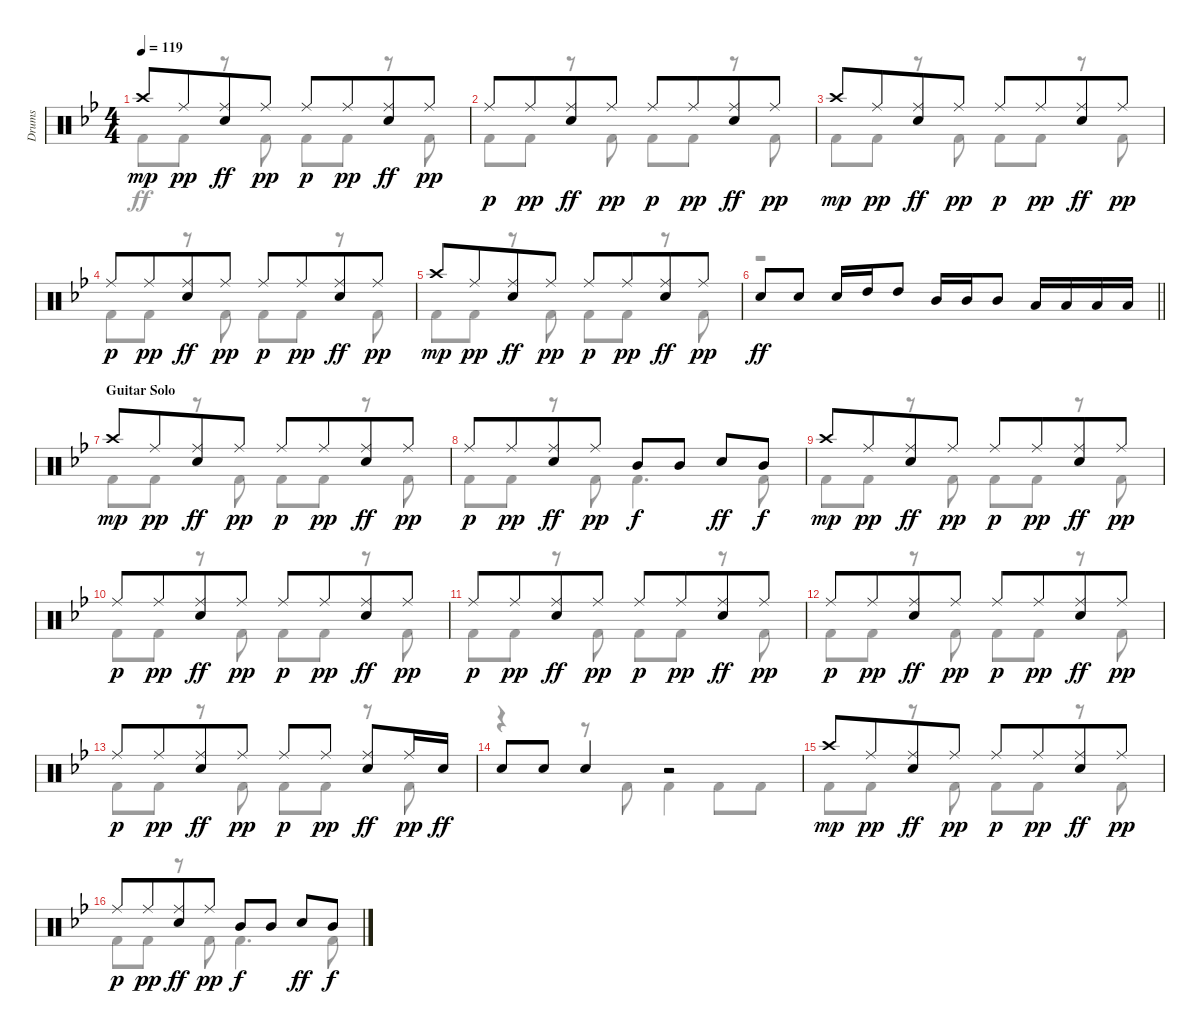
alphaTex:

\track ("Drums" "Drums") {instrument percussion}
\staff {score}
\articulation defaults
\voice
\ts (4 4)
\tempo 119
\clef neutral
\ks bb "Crash high (hit)".8{dy mp} "Ride (middle)".8{dy pp beam merge}
("Ride (middle)" "Electric Snare (hit)").8{dy ff} "Ride (middle)".8{dy pp} "Ride (middle)".8{dy p} "Ride (middle)".8{dy pp beam merge} ("Ride (middle)" "Electric Snare (hit)").8{dy ff} "Ride (middle)".8{dy pp} |
"Ride (middle)".8{dy p} "Ride (middle)".8{dy pp beam merge} ("Ride (middle)" "Electric Snare (hit)").8{dy ff} "Ride (middle)".8{dy pp} "Ride (middle)".8{dy p} "Ride (middle)".8{dy pp beam merge} ("Ride (middle)" "Electric Snare (hit)").8{dy ff} "Ride (middle)".8{dy pp} |
"Crash high (hit)".8{dy mp} "Ride (middle)".8{dy pp beam merge} ("Ride (middle)" "Electric Snare (hit)").8{dy ff} "Ride (middle)".8{dy pp} "Ride (middle)".8{dy p} "Ride (middle)".8{dy pp beam merge} ("Ride (middle)" "Electric Snare (hit)").8{dy ff} "Ride (middle)".8{dy pp} |
"Ride (middle)".8{dy p} "Ride (middle)".8{dy pp beam merge} ("Ride (middle)" "Electric Snare (hit)").8{dy ff} "Ride (middle)".8{dy pp} "Ride (middle)".8{dy p} "Ride (middle)".8{dy pp beam merge} ("Ride (middle)" "Electric Snare (hit)").8{dy ff} "Ride (middle)".8{dy pp} |
"Crash high (hit)".8{dy mp} "Ride (middle)".8{dy pp beam merge} ("Ride (middle)" "Electric Snare (hit)").8{dy ff} "Ride (middle)".8{dy pp} "Ride (middle)".8{dy p} "Ride (middle)".8{dy pp beam merge} ("Ride (middle)" "Electric Snare (hit)").8{dy ff} "Ride (middle)".8{dy pp} |
\barLineRight lightlight "Electric Snare (hit)".8{dy ff} "Electric Snare (hit)".8 "Electric Snare (hit)".16 "High Tom (hit)".16 "High Tom (hit)".8 "Mid Tom (hit)".16 "Mid Tom (hit)".16 "Mid Tom (hit)".8 "Low Tom (hit)".16 "Low Tom (hit)".16 "Low Tom (hit)".16 "Low Tom (hit)".16
|
\section ("" "Guitar Solo")
"Crash high (hit)".8{dy mp} "Ride (middle)".8{dy pp beam merge} ("Ride (middle)" "Electric Snare (hit)").8{dy ff} "Ride (middle)".8{dy pp} "Ride (middle)".8{dy p} "Ride (middle)".8{dy pp beam merge} ("Ride (middle)" "Electric Snare (hit)").8{dy ff} "Ride (middle)".8{dy pp} |
"Ride (middle)".8{dy p} "Ride (middle)".8{dy pp beam merge} ("Ride (middle)" "Electric Snare (hit)").8{dy ff} "Ride (middle)".8{dy pp} "Mid Tom (hit)".8{dy f} "Mid Tom (hit)".8{beam split} "Electric Snare (hit)".8{dy ff} "Mid Tom (hit)".8{dy f} |
"Crash high (hit)".8{dy mp} "Ride (middle)".8{dy pp beam merge} ("Ride (middle)" "Electric Snare (hit)").8{dy ff} "Ride (middle)".8{dy pp} "Ride (middle)".8{dy p} "Ride (middle)".8{dy pp beam merge} ("Ride (middle)" "Electric Snare (hit)").8{dy ff} "Ride (middle)".8{dy pp} |
"Ride (middle)".8{dy p} "Ride (middle)".8{dy pp beam merge} ("Ride (middle)" "Electric Snare (hit)").8{dy ff} "Ride (middle)".8{dy pp} "Ride (middle)".8{dy p} "Ride (middle)".8{dy pp beam merge} ("Ride (middle)" "Electric Snare (hit)").8{dy ff} "Ride (middle)".8{dy pp} |
"Ride (middle)".8{dy p} "Ride (middle)".8{dy pp beam merge} ("Ride (middle)" "Electric Snare (hit)").8{dy ff} "Ride (middle)".8{dy pp} "Ride (middle)".8{dy p} "Ride (middle)".8{dy pp beam merge} ("Ride (middle)" "Electric Snare (hit)").8{dy ff} "Ride (middle)".8{dy pp} |
"Ride (middle)".8{dy p} "Ride (middle)".8{dy pp beam merge} ("Ride (middle)" "Electric Snare (hit)").8{dy ff} "Ride (middle)".8{dy pp} "Ride (middle)".8{dy p} "Ride (middle)".8{dy pp beam merge} ("Ride (middle)" "Electric Snare (hit)").8{dy ff} "Ride (middle)".8{dy pp} |
"Ride (middle)".8{dy p} "Ride (middle)".8{dy pp beam merge} ("Ride (middle)" "Electric Snare (hit)").8{dy ff} "Ride (middle)".8{dy pp} "Ride (middle)".8{dy p} "Ride (middle)".8{dy pp} ("Ride (middle)" "Electric Snare (hit)").8{dy ff} "Ride (middle)".16{dy pp} "Electric Snare (hit)".16{dy ff} |
"Electric Snare (hit)".8 "Electric Snare (hit)".8 "Electric Snare (hit)".4 r.2 |
"Crash high (hit)".8{dy mp} "Ride (middle)".8{dy pp beam merge} ("Ride (middle)" "Electric Snare (hit)").8{dy ff} "Ride (middle)".8{dy pp} "Ride (middle)".8{dy p} "Ride (middle)".8{dy pp beam merge} ("Ride (middle)" "Electric Snare (hit)").8{dy ff} "Ride (middle)".8{dy pp} |
"Ride (middle)".8{dy p} "Ride (middle)".8{dy pp beam merge} ("Ride (middle)" "Electric Snare (hit)").8{dy ff} "Ride (middle)".8{dy pp} "Mid Tom (hit)".8{dy f} "Mid Tom (hit)".8{beam split} "Electric Snare (hit)".8{dy ff} "Mid Tom (hit)".8{dy f}
\voice
\clef neutral
\ottava regular
\simile none
\ks bb "Kick (hit) 2".8{dy ff} "Kick (hit) 2".8
r.8 "Kick (hit) 2".8 "Kick (hit) 2".8 "Kick (hit) 2".8 r.8 "Kick (hit) 2".8 |
"Kick (hit) 2".8 "Kick (hit) 2".8 r.8 "Kick (hit) 2".8 "Kick (hit) 2".8 "Kick (hit) 2".8 r.8 "Kick (hit) 2".8 |
"Kick (hit) 2".8 "Kick (hit) 2".8 r.8 "Kick (hit) 2".8 "Kick (hit) 2".8 "Kick (hit) 2".8 r.8 "Kick (hit) 2".8 |
"Kick (hit) 2".8 "Kick (hit) 2".8 r.8 "Kick (hit) 2".8 "Kick (hit) 2".8 "Kick (hit) 2".8 r.8 "Kick (hit) 2".8 |
"Kick (hit) 2".8 "Kick (hit) 2".8 r.8 "Kick (hit) 2".8 "Kick (hit) 2".8 "Kick (hit) 2".8 r.8 "Kick (hit) 2".8 |
\barLineRight lightlight
r.1 |
"Kick (hit) 2".8 "Kick (hit) 2".8 r.8 "Kick (hit) 2".8 "Kick (hit) 2".8 "Kick (hit) 2".8 r.8 "Kick (hit) 2".8 |
"Kick (hit) 2".8 "Kick (hit) 2".8 r.8 "Kick (hit) 2".8 "Kick (hit) 2".4{d} "Kick (hit) 2".8 |
"Kick (hit) 2".8 "Kick (hit) 2".8 r.8 "Kick (hit) 2".8 "Kick (hit) 2".8 "Kick (hit) 2".8 r.8 "Kick (hit) 2".8 |
"Kick (hit) 2".8 "Kick (hit) 2".8 r.8 "Kick (hit) 2".8 "Kick (hit) 2".8 "Kick (hit) 2".8 r.8 "Kick (hit) 2".8 |
"Kick (hit) 2".8 "Kick (hit) 2".8 r.8 "Kick (hit) 2".8 "Kick (hit) 2".8 "Kick (hit) 2".8 r.8 "Kick (hit) 2".8 |
"Kick (hit) 2".8 "Kick (hit) 2".8 r.8 "Kick (hit) 2".8 "Kick (hit) 2".8 "Kick (hit) 2".8 r.8 "Kick (hit) 2".8 |
"Kick (hit) 2".8 "Kick (hit) 2".8 r.8 "Kick (hit) 2".8 "Kick (hit) 2".8 "Kick (hit) 2".8 r.8 "Kick (hit) 2".8 |
r.4 r.8 "Kick (hit) 2".8 "Kick (hit) 2".4 "Kick (hit) 2".8 "Kick (hit) 2".8 |
"Kick (hit) 2".8 "Kick (hit) 2".8 r.8 "Kick (hit) 2".8 "Kick (hit) 2".8 "Kick (hit) 2".8 r.8 "Kick (hit) 2".8 |
"Kick (hit) 2".8 "Kick (hit) 2".8 r.8 "Kick (hit) 2".8 "Kick (hit) 2".4{d} "Kick (hit) 2".8
